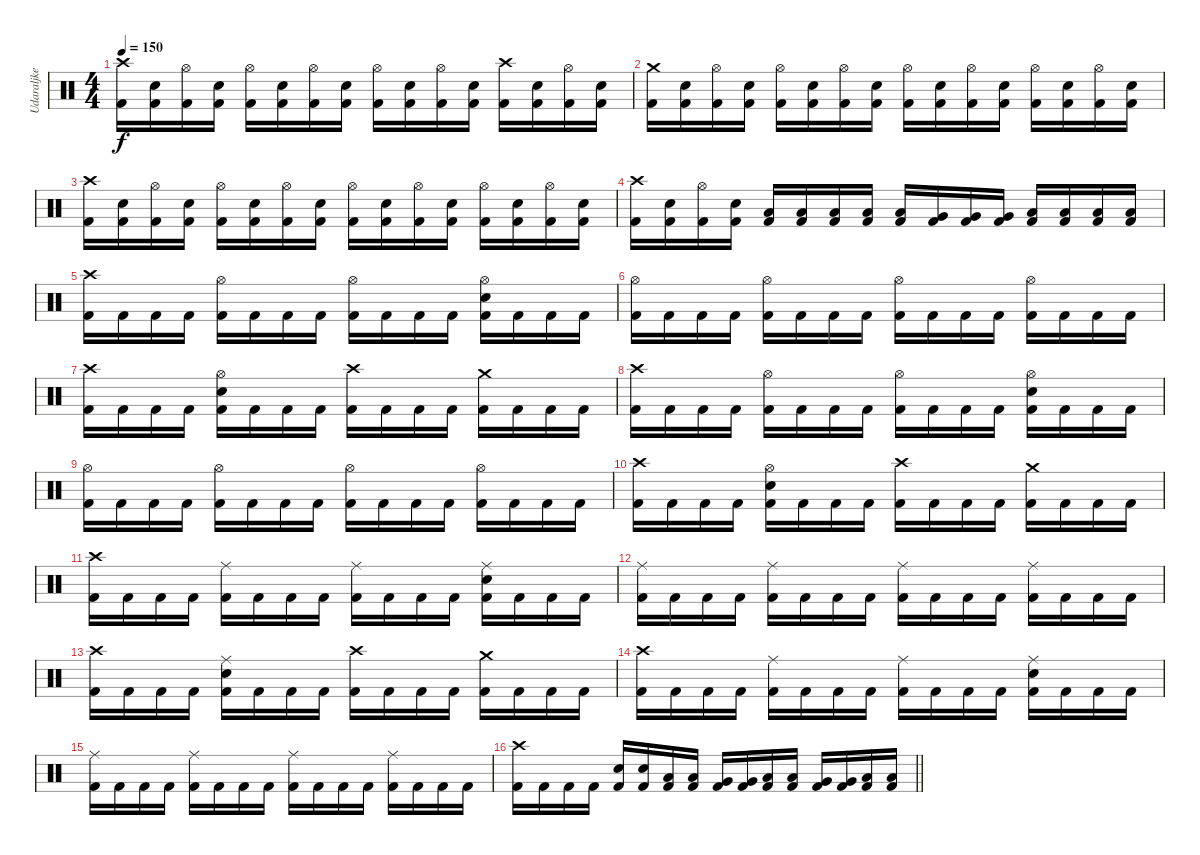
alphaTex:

\track ("Udaraljke" "Udaraljke") {instrument percussion}
\staff {score}
\articulation defaults
\ts (4 4)
\tempo 150
\clef neutral
\ks c
("Crash high (hit)" "Kick (hit) 2").16{dy f} ("Electric Snare (hit)" "Kick (hit) 2").16 ("Hi-Hat (open)" "Kick (hit) 2").16 ("Electric Snare (hit)" "Kick (hit) 2").16 ("Hi-Hat (open)" "Kick (hit) 2").16 ("Electric Snare (hit)" "Kick (hit) 2").16 ("Hi-Hat (open)" "Kick (hit) 2").16 ("Electric Snare (hit)" "Kick (hit) 2").16 ("Hi-Hat (open)" "Kick (hit) 2").16 ("Electric Snare (hit)" "Kick (hit) 2").16 ("Hi-Hat (open)" "Kick (hit) 2").16 ("Electric Snare (hit)" "Kick (hit) 2").16 ("Crash high (hit)" "Kick (hit) 2").16 ("Electric Snare (hit)" "Kick (hit) 2").16 ("Hi-Hat (open)" "Kick (hit) 2").16 ("Electric Snare (hit)" "Kick (hit) 2").16 |
("Crash medium (hit)" "Kick (hit) 2").16 ("Electric Snare (hit)" "Kick (hit) 2").16 ("Hi-Hat (open)" "Kick (hit) 2").16 ("Electric Snare (hit)" "Kick (hit) 2").16 ("Hi-Hat (open)" "Kick (hit) 2").16 ("Electric Snare (hit)" "Kick (hit) 2").16 ("Hi-Hat (open)" "Kick (hit) 2").16 ("Electric Snare (hit)" "Kick (hit) 2").16 ("Hi-Hat (open)" "Kick (hit) 2").16 ("Electric Snare (hit)" "Kick (hit) 2").16 ("Hi-Hat (open)" "Kick (hit) 2").16 ("Electric Snare (hit)" "Kick (hit) 2").16 ("Hi-Hat (open)" "Kick (hit) 2").16 ("Electric Snare (hit)" "Kick (hit) 2").16 ("Hi-Hat (open)" "Kick (hit) 2").16 ("Electric Snare (hit)" "Kick (hit) 2").16 |
("Crash high (hit)" "Kick (hit) 2").16 ("Electric Snare (hit)" "Kick (hit) 2").16 ("Hi-Hat (open)" "Kick (hit) 2").16 ("Electric Snare (hit)" "Kick (hit) 2").16 ("Hi-Hat (open)" "Kick (hit) 2").16 ("Electric Snare (hit)" "Kick (hit) 2").16 ("Hi-Hat (open)" "Kick (hit) 2").16 ("Electric Snare (hit)" "Kick (hit) 2").16 ("Hi-Hat (open)" "Kick (hit) 2").16 ("Electric Snare (hit)" "Kick (hit) 2").16 ("Hi-Hat (open)" "Kick (hit) 2").16 ("Electric Snare (hit)" "Kick (hit) 2").16 ("Hi-Hat (open)" "Kick (hit) 2").16 ("Electric Snare (hit)" "Kick (hit) 2").16 ("Hi-Hat (open)" "Kick (hit) 2").16 ("Electric Snare (hit)" "Kick (hit) 2").16 |
("Crash high (hit)" "Kick (hit) 2").16 ("Electric Snare (hit)" "Kick (hit) 2").16 ("Hi-Hat (open)" "Kick (hit) 2").16 ("Electric Snare (hit)" "Kick (hit) 2").16 ("Low Floor Tom (hit)" "Kick (hit) 2").16 ("Low Floor Tom (hit)" "Kick (hit) 2").16 ("Low Floor Tom (hit)" "Kick (hit) 2").16 ("Low Floor Tom (hit)" "Kick (hit) 2").16 ("Low Floor Tom (hit)" "Kick (hit) 2").16 ("Very Low Tom (hit)" "Kick (hit) 2").16 ("Very Low Tom (hit)" "Kick (hit) 2").16 ("Very Low Tom (hit)" "Kick (hit) 2").16 ("Low Tom (hit)" "Kick (hit) 2").16 ("Low Tom (hit)" "Kick (hit) 2").16 ("Low Tom (hit)" "Kick (hit) 2").16 ("Low Tom (hit)" "Kick (hit) 2").16 |
("Crash high (hit)" "Kick (hit) 2").16 "Kick (hit) 2".16 "Kick (hit) 2".16 "Kick (hit) 2".16 ("Hi-Hat (open)" "Kick (hit) 2").16 "Kick (hit) 2".16 "Kick (hit) 2".16 "Kick (hit) 2".16 ("Hi-Hat (open)" "Kick (hit) 2").16 "Kick (hit) 2".16 "Kick (hit) 2".16 "Kick (hit) 2".16 ("Hi-Hat (open)" "Electric Snare (hit)" "Kick (hit) 2").16 "Kick (hit) 2".16 "Kick (hit) 2".16 "Kick (hit) 2".16 |
("Hi-Hat (open)" "Kick (hit) 2").16 "Kick (hit) 2".16 "Kick (hit) 2".16 "Kick (hit) 2".16 ("Hi-Hat (open)" "Kick (hit) 2").16 "Kick (hit) 2".16 "Kick (hit) 2".16 "Kick (hit) 2".16 ("Hi-Hat (open)" "Kick (hit) 2").16 "Kick (hit) 2".16 "Kick (hit) 2".16 "Kick (hit) 2".16 ("Hi-Hat (open)" "Kick (hit) 2").16 "Kick (hit) 2".16 "Kick (hit) 2".16 "Kick (hit) 2".16 |
("Crash high (hit)" "Kick (hit) 2").16 "Kick (hit) 2".16 "Kick (hit) 2".16 "Kick (hit) 2".16 ("Hi-Hat (open)" "Electric Snare (hit)" "Kick (hit) 2").16 "Kick (hit) 2".16 "Kick (hit) 2".16 "Kick (hit) 2".16 ("Crash high (hit)" "Kick (hit) 2").16 "Kick (hit) 2".16 "Kick (hit) 2".16 "Kick (hit) 2".16 ("Crash medium (hit)" "Kick (hit) 2").16 "Kick (hit) 2".16 "Kick (hit) 2".16 "Kick (hit) 2".16 |
("Crash high (hit)" "Kick (hit) 2").16 "Kick (hit) 2".16 "Kick (hit) 2".16 "Kick (hit) 2".16 ("Hi-Hat (open)" "Kick (hit) 2").16 "Kick (hit) 2".16 "Kick (hit) 2".16 "Kick (hit) 2".16 ("Hi-Hat (open)" "Kick (hit) 2").16 "Kick (hit) 2".16 "Kick (hit) 2".16 "Kick (hit) 2".16 ("Hi-Hat (open)" "Electric Snare (hit)" "Kick (hit) 2").16 "Kick (hit) 2".16 "Kick (hit) 2".16 "Kick (hit) 2".16 |
("Hi-Hat (open)" "Kick (hit) 2").16 "Kick (hit) 2".16 "Kick (hit) 2".16 "Kick (hit) 2".16 ("Hi-Hat (open)" "Kick (hit) 2").16 "Kick (hit) 2".16 "Kick (hit) 2".16 "Kick (hit) 2".16 ("Hi-Hat (open)" "Kick (hit) 2").16 "Kick (hit) 2".16 "Kick (hit) 2".16 "Kick (hit) 2".16 ("Hi-Hat (open)" "Kick (hit) 2").16 "Kick (hit) 2".16 "Kick (hit) 2".16 "Kick (hit) 2".16 |
("Crash high (hit)" "Kick (hit) 2").16 "Kick (hit) 2".16 "Kick (hit) 2".16 "Kick (hit) 2".16 ("Hi-Hat (open)" "Electric Snare (hit)" "Kick (hit) 2").16 "Kick (hit) 2".16 "Kick (hit) 2".16 "Kick (hit) 2".16 ("Crash high (hit)" "Kick (hit) 2").16 "Kick (hit) 2".16 "Kick (hit) 2".16 "Kick (hit) 2".16 ("Crash medium (hit)" "Kick (hit) 2").16 "Kick (hit) 2".16 "Kick (hit) 2".16 "Kick (hit) 2".16 |
("Crash high (hit)" "Kick (hit) 2").16 "Kick (hit) 2".16 "Kick (hit) 2".16 "Kick (hit) 2".16 ("Ride (middle)" "Kick (hit) 2").16 "Kick (hit) 2".16 "Kick (hit) 2".16 "Kick (hit) 2".16 ("Ride (middle)" "Kick (hit) 2").16 "Kick (hit) 2".16 "Kick (hit) 2".16 "Kick (hit) 2".16 ("Ride (middle)" "Electric Snare (hit)" "Kick (hit) 2").16 "Kick (hit) 2".16 "Kick (hit) 2".16 "Kick (hit) 2".16 |
("Ride (middle)" "Kick (hit) 2").16 "Kick (hit) 2".16 "Kick (hit) 2".16 "Kick (hit) 2".16 ("Ride (middle)" "Kick (hit) 2").16 "Kick (hit) 2".16 "Kick (hit) 2".16 "Kick (hit) 2".16 ("Ride (middle)" "Kick (hit) 2").16 "Kick (hit) 2".16 "Kick (hit) 2".16 "Kick (hit) 2".16 ("Ride (middle)" "Kick (hit) 2").16 "Kick (hit) 2".16 "Kick (hit) 2".16 "Kick (hit) 2".16 |
("Crash high (hit)" "Kick (hit) 2").16 "Kick (hit) 2".16 "Kick (hit) 2".16 "Kick (hit) 2".16 ("Ride (middle)" "Electric Snare (hit)" "Kick (hit) 2").16 "Kick (hit) 2".16 "Kick (hit) 2".16 "Kick (hit) 2".16 ("Crash high (hit)" "Kick (hit) 2").16 "Kick (hit) 2".16 "Kick (hit) 2".16 "Kick (hit) 2".16 ("Crash medium (hit)" "Kick (hit) 2").16 "Kick (hit) 2".16 "Kick (hit) 2".16 "Kick (hit) 2".16 |
("Crash high (hit)" "Kick (hit) 2").16 "Kick (hit) 2".16 "Kick (hit) 2".16 "Kick (hit) 2".16 ("Ride (middle)" "Kick (hit) 2").16 "Kick (hit) 2".16 "Kick (hit) 2".16 "Kick (hit) 2".16 ("Ride (middle)" "Kick (hit) 2").16 "Kick (hit) 2".16 "Kick (hit) 2".16 "Kick (hit) 2".16 ("Ride (middle)" "Electric Snare (hit)" "Kick (hit) 2").16 "Kick (hit) 2".16 "Kick (hit) 2".16 "Kick (hit) 2".16 |
("Ride (middle)" "Kick (hit) 2").16 "Kick (hit) 2".16 "Kick (hit) 2".16 "Kick (hit) 2".16 ("Ride (middle)" "Kick (hit) 2").16 "Kick (hit) 2".16 "Kick (hit) 2".16 "Kick (hit) 2".16 ("Ride (middle)" "Kick (hit) 2").16 "Kick (hit) 2".16 "Kick (hit) 2".16 "Kick (hit) 2".16 ("Ride (middle)" "Kick (hit) 2").16 "Kick (hit) 2".16 "Kick (hit) 2".16 "Kick (hit) 2".16 |
\barLineRight lightlight
("Crash high (hit)" "Kick (hit) 2").16 "Kick (hit) 2".16 "Kick (hit) 2".16 "Kick (hit) 2".16 ("Electric Snare (hit)" "Kick (hit) 2").16 ("Electric Snare (hit)" "Kick (hit) 2").16 ("Low Floor Tom (hit)" "Kick (hit) 2").16 ("Low Floor Tom (hit)" "Kick (hit) 2").16 ("Very Low Tom (hit)" "Kick (hit) 2").16 ("Very Low Tom (hit)" "Kick (hit) 2").16 ("Low Floor Tom (hit)" "Kick (hit) 2").16 ("Low Floor Tom (hit)" "Kick (hit) 2").16 ("Very Low Tom (hit)" "Kick (hit) 2").16 ("Very Low Tom (hit)" "Kick (hit) 2").16 ("Low Tom (hit)" "Kick (hit) 2").16 ("Low Tom (hit)" "Kick (hit) 2").16
